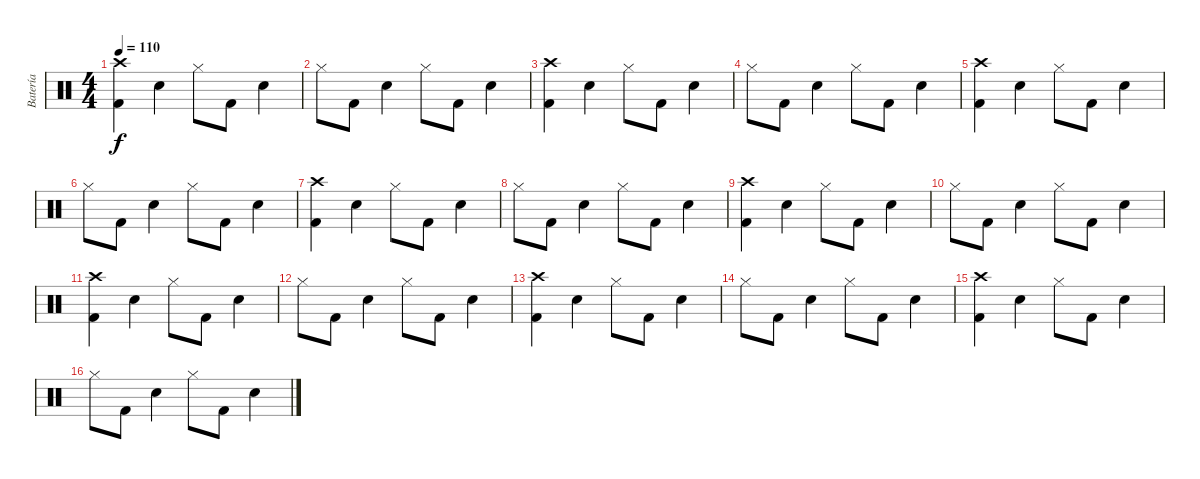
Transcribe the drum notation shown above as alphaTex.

\track ("Batería" "Batería") {instrument percussion}
\staff {score}
\articulation defaults
\ts (4 4)
\tempo 110
\clef neutral
\ks c
("Crash high (hit)" "Kick (hit) 2").4{dy f volume 11} "Electric Snare (hit)".4 "Hi-Hat (closed)".8 "Kick (hit) 2".8 "Electric Snare (hit)".4 |
"Hi-Hat (closed)".8 "Kick (hit) 2".8 "Electric Snare (hit)".4 "Hi-Hat (closed)".8 "Kick (hit) 2".8 "Electric Snare (hit)".4 |
("Crash high (hit)" "Kick (hit) 2").4{volume 11} "Electric Snare (hit)".4 "Hi-Hat (closed)".8 "Kick (hit) 2".8 "Electric Snare (hit)".4 |
"Hi-Hat (closed)".8 "Kick (hit) 2".8 "Electric Snare (hit)".4 "Hi-Hat (closed)".8 "Kick (hit) 2".8 "Electric Snare (hit)".4 |
("Crash high (hit)" "Kick (hit) 2").4{volume 11} "Electric Snare (hit)".4 "Hi-Hat (closed)".8 "Kick (hit) 2".8 "Electric Snare (hit)".4 |
"Hi-Hat (closed)".8 "Kick (hit) 2".8 "Electric Snare (hit)".4 "Hi-Hat (closed)".8 "Kick (hit) 2".8 "Electric Snare (hit)".4 |
("Crash high (hit)" "Kick (hit) 2").4{volume 11} "Electric Snare (hit)".4 "Hi-Hat (closed)".8 "Kick (hit) 2".8 "Electric Snare (hit)".4 |
"Hi-Hat (closed)".8 "Kick (hit) 2".8 "Electric Snare (hit)".4 "Hi-Hat (closed)".8 "Kick (hit) 2".8 "Electric Snare (hit)".4 |
("Crash high (hit)" "Kick (hit) 2").4{volume 11} "Electric Snare (hit)".4 "Hi-Hat (closed)".8 "Kick (hit) 2".8 "Electric Snare (hit)".4 |
"Hi-Hat (closed)".8 "Kick (hit) 2".8 "Electric Snare (hit)".4 "Hi-Hat (closed)".8 "Kick (hit) 2".8 "Electric Snare (hit)".4 |
("Crash high (hit)" "Kick (hit) 2").4{volume 11} "Electric Snare (hit)".4 "Hi-Hat (closed)".8 "Kick (hit) 2".8 "Electric Snare (hit)".4 |
"Hi-Hat (closed)".8 "Kick (hit) 2".8 "Electric Snare (hit)".4 "Hi-Hat (closed)".8 "Kick (hit) 2".8 "Electric Snare (hit)".4 |
("Crash high (hit)" "Kick (hit) 2").4{volume 11} "Electric Snare (hit)".4 "Hi-Hat (closed)".8 "Kick (hit) 2".8 "Electric Snare (hit)".4 |
"Hi-Hat (closed)".8 "Kick (hit) 2".8 "Electric Snare (hit)".4 "Hi-Hat (closed)".8 "Kick (hit) 2".8 "Electric Snare (hit)".4 |
("Crash high (hit)" "Kick (hit) 2").4{volume 11} "Electric Snare (hit)".4 "Hi-Hat (closed)".8 "Kick (hit) 2".8 "Electric Snare (hit)".4 |
"Hi-Hat (closed)".8 "Kick (hit) 2".8 "Electric Snare (hit)".4 "Hi-Hat (closed)".8 "Kick (hit) 2".8 "Electric Snare (hit)".4
